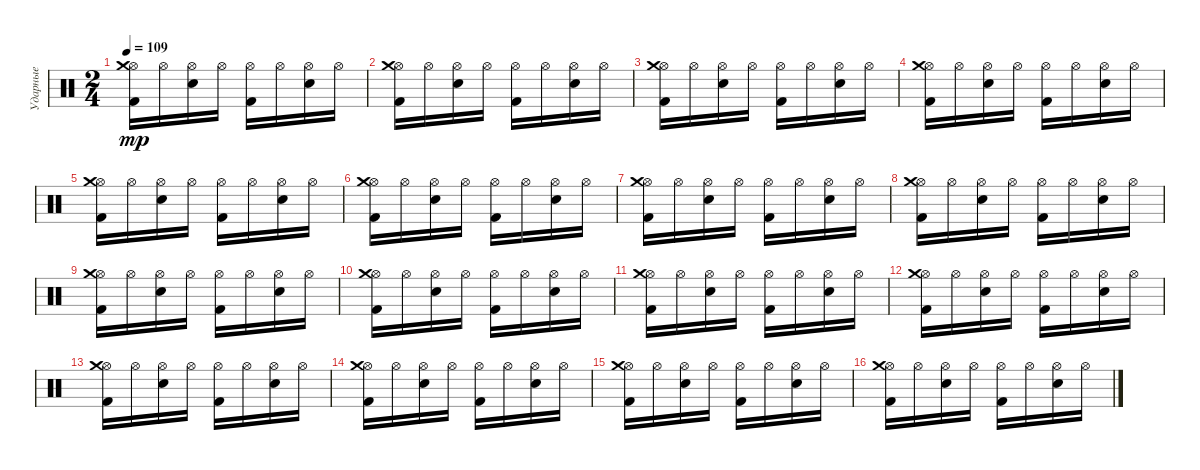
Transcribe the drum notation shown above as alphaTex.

\track ("Ударные" "Ударные") {instrument percussion}
\staff {score}
\articulation defaults
\ts (2 4)
\tempo 109
\clef neutral
\ks c
("Kick (hit) 2" "Hi-Hat (open)" "Crash medium (hit)").16{dy mp} "Hi-Hat (open)".16 ("Electric Snare (hit)" "Hi-Hat (open)").16 "Hi-Hat (open)".16 ("Kick (hit) 2" "Hi-Hat (open)").16 "Hi-Hat (open)".16 ("Electric Snare (hit)" "Hi-Hat (open)").16 "Hi-Hat (open)".16 |
("Kick (hit) 2" "Hi-Hat (open)" "Crash medium (hit)").16 "Hi-Hat (open)".16 ("Electric Snare (hit)" "Hi-Hat (open)").16 "Hi-Hat (open)".16 ("Kick (hit) 2" "Hi-Hat (open)").16 "Hi-Hat (open)".16 ("Electric Snare (hit)" "Hi-Hat (open)").16 "Hi-Hat (open)".16 |
("Kick (hit) 2" "Hi-Hat (open)" "Crash medium (hit)").16 "Hi-Hat (open)".16 ("Electric Snare (hit)" "Hi-Hat (open)").16 "Hi-Hat (open)".16 ("Kick (hit) 2" "Hi-Hat (open)").16 "Hi-Hat (open)".16 ("Electric Snare (hit)" "Hi-Hat (open)").16 "Hi-Hat (open)".16 |
("Kick (hit) 2" "Hi-Hat (open)" "Crash medium (hit)").16 "Hi-Hat (open)".16 ("Electric Snare (hit)" "Hi-Hat (open)").16 "Hi-Hat (open)".16 ("Kick (hit) 2" "Hi-Hat (open)").16 "Hi-Hat (open)".16 ("Electric Snare (hit)" "Hi-Hat (open)").16 "Hi-Hat (open)".16 |
("Kick (hit) 2" "Hi-Hat (open)" "Crash medium (hit)").16 "Hi-Hat (open)".16 ("Electric Snare (hit)" "Hi-Hat (open)").16 "Hi-Hat (open)".16 ("Kick (hit) 2" "Hi-Hat (open)").16 "Hi-Hat (open)".16 ("Electric Snare (hit)" "Hi-Hat (open)").16 "Hi-Hat (open)".16 |
("Kick (hit) 2" "Hi-Hat (open)" "Crash medium (hit)").16 "Hi-Hat (open)".16 ("Electric Snare (hit)" "Hi-Hat (open)").16 "Hi-Hat (open)".16 ("Kick (hit) 2" "Hi-Hat (open)").16 "Hi-Hat (open)".16 ("Electric Snare (hit)" "Hi-Hat (open)").16 "Hi-Hat (open)".16 |
("Kick (hit) 2" "Hi-Hat (open)" "Crash medium (hit)").16 "Hi-Hat (open)".16 ("Electric Snare (hit)" "Hi-Hat (open)").16 "Hi-Hat (open)".16 ("Kick (hit) 2" "Hi-Hat (open)").16 "Hi-Hat (open)".16 ("Electric Snare (hit)" "Hi-Hat (open)").16 "Hi-Hat (open)".16 |
("Kick (hit) 2" "Hi-Hat (open)" "Crash medium (hit)").16 "Hi-Hat (open)".16 ("Electric Snare (hit)" "Hi-Hat (open)").16 "Hi-Hat (open)".16 ("Kick (hit) 2" "Hi-Hat (open)").16 "Hi-Hat (open)".16 ("Electric Snare (hit)" "Hi-Hat (open)").16 "Hi-Hat (open)".16 |
("Kick (hit) 2" "Hi-Hat (open)" "Crash medium (hit)").16 "Hi-Hat (open)".16 ("Electric Snare (hit)" "Hi-Hat (open)").16 "Hi-Hat (open)".16 ("Kick (hit) 2" "Hi-Hat (open)").16 "Hi-Hat (open)".16 ("Electric Snare (hit)" "Hi-Hat (open)").16 "Hi-Hat (open)".16 |
("Kick (hit) 2" "Hi-Hat (open)" "Crash medium (hit)").16 "Hi-Hat (open)".16 ("Electric Snare (hit)" "Hi-Hat (open)").16 "Hi-Hat (open)".16 ("Kick (hit) 2" "Hi-Hat (open)").16 "Hi-Hat (open)".16 ("Electric Snare (hit)" "Hi-Hat (open)").16 "Hi-Hat (open)".16 |
("Kick (hit) 2" "Hi-Hat (open)" "Crash medium (hit)").16 "Hi-Hat (open)".16 ("Electric Snare (hit)" "Hi-Hat (open)").16 "Hi-Hat (open)".16 ("Kick (hit) 2" "Hi-Hat (open)").16 "Hi-Hat (open)".16 ("Electric Snare (hit)" "Hi-Hat (open)").16 "Hi-Hat (open)".16 |
("Kick (hit) 2" "Hi-Hat (open)" "Crash medium (hit)").16 "Hi-Hat (open)".16 ("Electric Snare (hit)" "Hi-Hat (open)").16 "Hi-Hat (open)".16 ("Kick (hit) 2" "Hi-Hat (open)").16 "Hi-Hat (open)".16 ("Electric Snare (hit)" "Hi-Hat (open)").16 "Hi-Hat (open)".16 |
("Kick (hit) 2" "Hi-Hat (open)" "Crash medium (hit)").16 "Hi-Hat (open)".16 ("Electric Snare (hit)" "Hi-Hat (open)").16 "Hi-Hat (open)".16 ("Kick (hit) 2" "Hi-Hat (open)").16 "Hi-Hat (open)".16 ("Electric Snare (hit)" "Hi-Hat (open)").16 "Hi-Hat (open)".16 |
("Kick (hit) 2" "Hi-Hat (open)" "Crash medium (hit)").16 "Hi-Hat (open)".16 ("Electric Snare (hit)" "Hi-Hat (open)").16 "Hi-Hat (open)".16 ("Kick (hit) 2" "Hi-Hat (open)").16 "Hi-Hat (open)".16 ("Electric Snare (hit)" "Hi-Hat (open)").16 "Hi-Hat (open)".16 |
("Kick (hit) 2" "Hi-Hat (open)" "Crash medium (hit)").16 "Hi-Hat (open)".16 ("Electric Snare (hit)" "Hi-Hat (open)").16 "Hi-Hat (open)".16 ("Kick (hit) 2" "Hi-Hat (open)").16 "Hi-Hat (open)".16 ("Electric Snare (hit)" "Hi-Hat (open)").16 "Hi-Hat (open)".16 |
("Kick (hit) 2" "Hi-Hat (open)" "Crash medium (hit)").16 "Hi-Hat (open)".16 ("Electric Snare (hit)" "Hi-Hat (open)").16 "Hi-Hat (open)".16 ("Kick (hit) 2" "Hi-Hat (open)").16 "Hi-Hat (open)".16 ("Electric Snare (hit)" "Hi-Hat (open)").16 "Hi-Hat (open)".16
